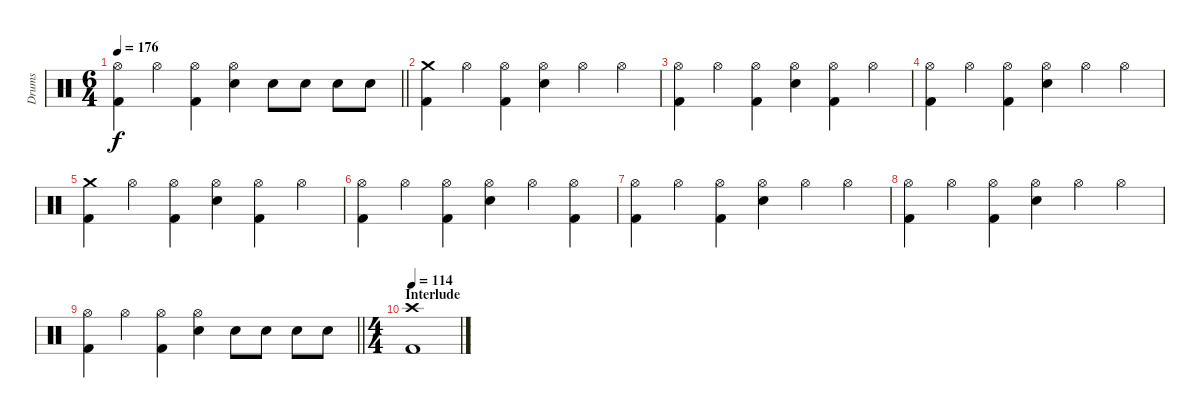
\track ("Drums" "Drums") {instrument percussion}
\staff {score}
\articulation defaults
\ts (6 4)
\tempo 176
\clef neutral
\barLineRight lightlight
\ks c
("Hi-Hat (open)" "Kick (hit) 2").4{dy f} "Hi-Hat (open)".4 ("Hi-Hat (open)" "Kick (hit) 2").4 ("Hi-Hat (open)" "Snare (hit) 2").4 "Snare (hit) 2".8 "Snare (hit) 2".8 "Snare (hit) 2".8 "Snare (hit) 2".8 |
("Crash medium (hit)" "Kick (hit) 2").4 "Hi-Hat (open)".4 ("Hi-Hat (open)" "Kick (hit) 2").4 ("Hi-Hat (open)" "Snare (hit) 2").4 "Hi-Hat (open)".4 "Hi-Hat (open)".4 |
("Hi-Hat (open)" "Kick (hit) 2").4 "Hi-Hat (open)".4 ("Hi-Hat (open)" "Kick (hit) 2").4 ("Hi-Hat (open)" "Snare (hit) 2").4 ("Hi-Hat (open)" "Kick (hit) 2").4 "Hi-Hat (open)".4 |
("Hi-Hat (open)" "Kick (hit) 2").4 "Hi-Hat (open)".4 ("Hi-Hat (open)" "Kick (hit) 2").4 ("Hi-Hat (open)" "Snare (hit) 2").4 "Hi-Hat (open)".4 "Hi-Hat (open)".4 |
("Crash medium (hit)" "Kick (hit) 2").4 "Hi-Hat (open)".4 ("Hi-Hat (open)" "Kick (hit) 2").4 ("Hi-Hat (open)" "Snare (hit) 2").4 ("Hi-Hat (open)" "Kick (hit) 2").4 "Hi-Hat (open)".4 |
("Hi-Hat (open)" "Kick (hit) 2").4 "Hi-Hat (open)".4 ("Hi-Hat (open)" "Kick (hit) 2").4 ("Hi-Hat (open)" "Snare (hit) 2").4 "Hi-Hat (open)".4 ("Hi-Hat (open)" "Kick (hit) 2").4 |
("Hi-Hat (open)" "Kick (hit) 2").4 "Hi-Hat (open)".4 ("Hi-Hat (open)" "Kick (hit) 2").4 ("Hi-Hat (open)" "Snare (hit) 2").4 "Hi-Hat (open)".4 "Hi-Hat (open)".4 |
("Hi-Hat (open)" "Kick (hit) 2").4 "Hi-Hat (open)".4 ("Hi-Hat (open)" "Kick (hit) 2").4 ("Hi-Hat (open)" "Snare (hit) 2").4 "Hi-Hat (open)".4 "Hi-Hat (open)".4 |
\barLineRight lightlight
("Hi-Hat (open)" "Kick (hit) 2").4 "Hi-Hat (open)".4 ("Hi-Hat (open)" "Kick (hit) 2").4 ("Hi-Hat (open)" "Snare (hit) 2").4 "Snare (hit) 2".8 "Snare (hit) 2".8 "Snare (hit) 2".8 "Snare (hit) 2".8 |
\ts (4 4)
\section ("" "Interlude")
\tempo 114
("Crash high (hit)" "Kick (hit) 2").1
